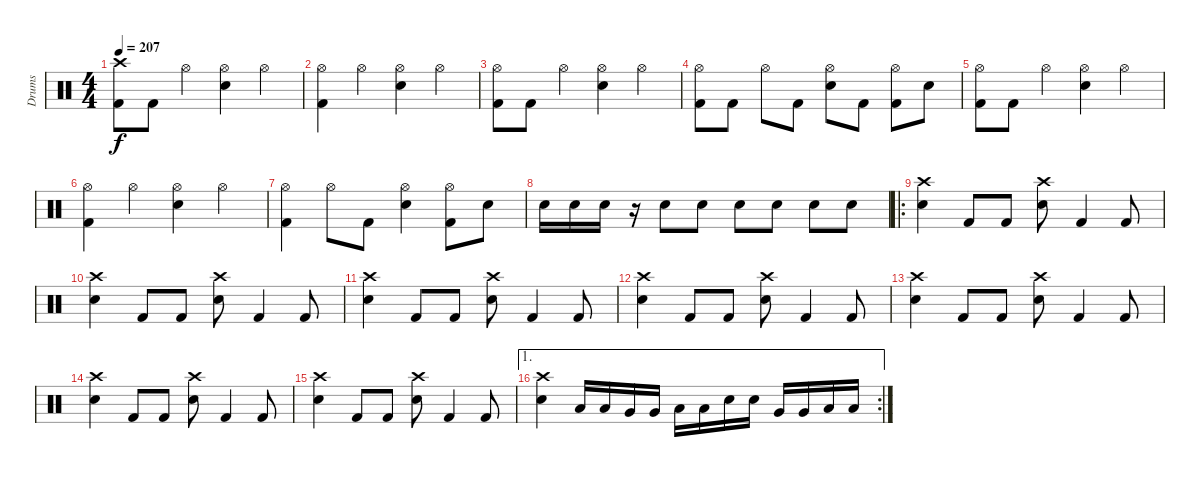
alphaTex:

\track ("Drums" "Drums") {instrument percussion}
\staff {score}
\articulation defaults
\ts (4 4)
\tempo 207
\clef neutral
\ks c
("Crash high (hit)" "Kick (hit) 2").8{dy f} "Kick (hit) 2".8 "Hi-Hat (open)".4 ("Hi-Hat (open)" "Electric Snare (hit)").4 "Hi-Hat (open)".4 |
("Hi-Hat (open)" "Kick (hit) 2").4 "Hi-Hat (open)".4 ("Hi-Hat (open)" "Electric Snare (hit)").4 "Hi-Hat (open)".4 |
("Hi-Hat (open)" "Kick (hit) 2").8 "Kick (hit) 2".8 "Hi-Hat (open)".4 ("Hi-Hat (open)" "Electric Snare (hit)").4 "Hi-Hat (open)".4 |
("Hi-Hat (open)" "Kick (hit) 2").8 "Kick (hit) 2".8 "Hi-Hat (open)".8 "Kick (hit) 2".8 ("Hi-Hat (open)" "Electric Snare (hit)").8 "Kick (hit) 2".8 ("Hi-Hat (open)" "Kick (hit) 2").8 "Electric Snare (hit)".8 |
("Hi-Hat (open)" "Kick (hit) 2").8 "Kick (hit) 2".8 "Hi-Hat (open)".4 ("Hi-Hat (open)" "Electric Snare (hit)").4 "Hi-Hat (open)".4 |
("Hi-Hat (open)" "Kick (hit) 2").4 "Hi-Hat (open)".4 ("Hi-Hat (open)" "Electric Snare (hit)").4 "Hi-Hat (open)".4 |
("Hi-Hat (open)" "Kick (hit) 2").4 "Hi-Hat (open)".8 "Kick (hit) 2".8 ("Hi-Hat (open)" "Electric Snare (hit)").4 ("Hi-Hat (open)" "Kick (hit) 2").8 "Electric Snare (hit)".8 |
"Electric Snare (hit)".16 "Electric Snare (hit)".16 "Electric Snare (hit)".16 r.16 "Electric Snare (hit)".8 "Electric Snare (hit)".8 "Electric Snare (hit)".8 "Electric Snare (hit)".8 "Electric Snare (hit)".8 "Electric Snare (hit)".8 |
\ro
("Crash high (hit)" "Electric Snare (hit)").4 "Kick (hit) 2".8 "Kick (hit) 2".8 ("Crash high (hit)" "Electric Snare (hit)").8 "Kick (hit) 2".4 "Kick (hit) 2".8 |
("Crash high (hit)" "Electric Snare (hit)").4 "Kick (hit) 2".8 "Kick (hit) 2".8 ("Crash high (hit)" "Electric Snare (hit)").8 "Kick (hit) 2".4 "Kick (hit) 2".8 |
("Crash high (hit)" "Electric Snare (hit)").4 "Kick (hit) 2".8 "Kick (hit) 2".8 ("Crash high (hit)" "Electric Snare (hit)").8 "Kick (hit) 2".4 "Kick (hit) 2".8 |
("Crash high (hit)" "Electric Snare (hit)").4 "Kick (hit) 2".8 "Kick (hit) 2".8 ("Crash high (hit)" "Electric Snare (hit)").8 "Kick (hit) 2".4 "Kick (hit) 2".8 |
("Crash high (hit)" "Electric Snare (hit)").4 "Kick (hit) 2".8 "Kick (hit) 2".8 ("Crash high (hit)" "Electric Snare (hit)").8 "Kick (hit) 2".4 "Kick (hit) 2".8 |
("Crash high (hit)" "Electric Snare (hit)").4 "Kick (hit) 2".8 "Kick (hit) 2".8 ("Crash high (hit)" "Electric Snare (hit)").8 "Kick (hit) 2".4 "Kick (hit) 2".8 |
("Crash high (hit)" "Electric Snare (hit)").4 "Kick (hit) 2".8 "Kick (hit) 2".8 ("Crash high (hit)" "Electric Snare (hit)").8 "Kick (hit) 2".4 "Kick (hit) 2".8 |
\ae 1
\rc 2
("Crash high (hit)" "Electric Snare (hit)").4 "Low Tom (hit)".16 "Low Tom (hit)".16 "Very Low Tom (hit)".16 "Very Low Tom (hit)".16 "Low Floor Tom (hit)".16 "Low Floor Tom (hit)".16 "Electric Snare (hit)".16 "Electric Snare (hit)".16 "Very Low Tom (hit)".16 "Very Low Tom (hit)".16 "Low Floor Tom (hit)".16 "Low Floor Tom (hit)".16
